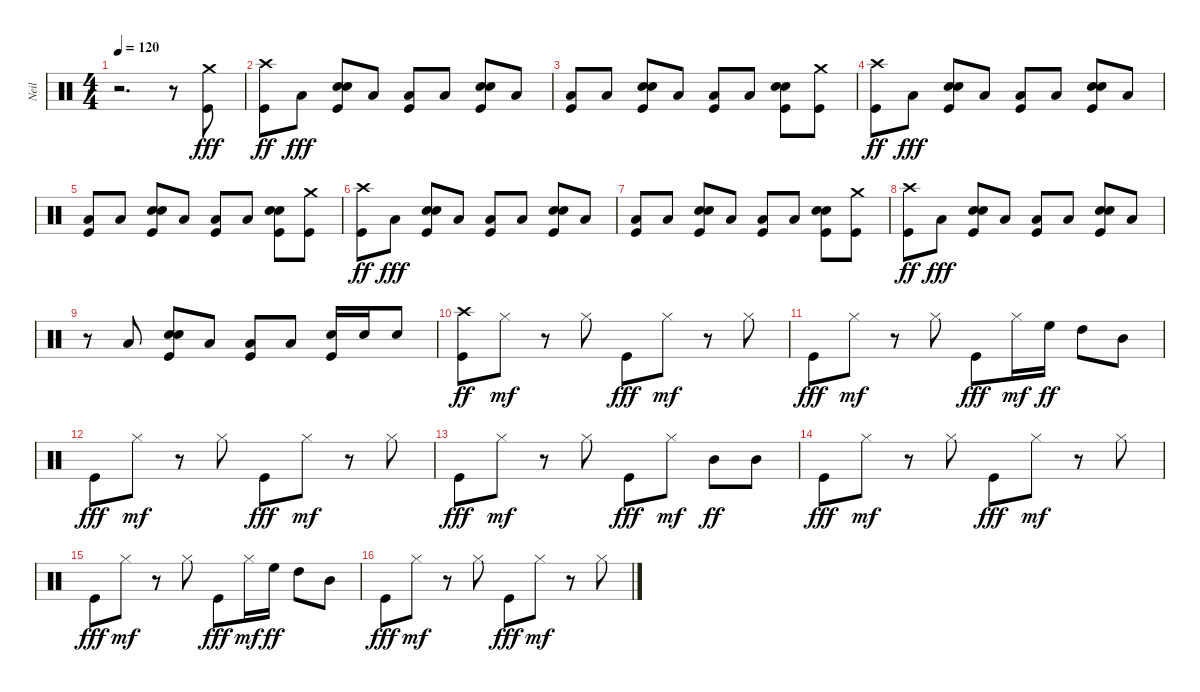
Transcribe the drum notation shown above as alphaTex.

\track ("Neil" "Neil") {instrument percussion}
\staff {score}
\articulation defaults
\ts (4 4)
\tempo 120
\clef neutral
\ks c
r.2{d dy fff} r.8 ("Kick (hit)" "Crash medium (hit)").8 |
("Kick (hit)" "Crash high (hit)").8{dy ff} "Low Floor Tom (hit)".8{dy fff} ("Snare (hit) 2" "Kick (hit)" "Snare (hit) 2").8 "Low Floor Tom (hit)".8 ("Kick (hit)" "Low Floor Tom (hit)").8 "Low Floor Tom (hit)".8 ("Snare (hit) 2" "Kick (hit)" "Snare (hit) 2").8 "Low Floor Tom (hit)".8 |
("Kick (hit)" "Low Floor Tom (hit)").8 "Low Floor Tom (hit)".8 ("Snare (hit) 2" "Kick (hit)" "Snare (hit) 2").8 "Low Floor Tom (hit)".8 ("Kick (hit)" "Low Floor Tom (hit)").8 "Low Floor Tom (hit)".8 ("Snare (hit) 2" "Kick (hit)" "Snare (hit) 2").8 ("Kick (hit)" "Crash medium (hit)").8 |
("Kick (hit)" "Crash high (hit)").8{dy ff} "Low Floor Tom (hit)".8{dy fff} ("Snare (hit) 2" "Kick (hit)" "Snare (hit) 2").8 "Low Floor Tom (hit)".8 ("Kick (hit)" "Low Floor Tom (hit)").8 "Low Floor Tom (hit)".8 ("Snare (hit) 2" "Kick (hit)" "Snare (hit) 2").8 "Low Floor Tom (hit)".8 |
("Kick (hit)" "Low Floor Tom (hit)").8 "Low Floor Tom (hit)".8 ("Snare (hit) 2" "Kick (hit)" "Snare (hit) 2").8 "Low Floor Tom (hit)".8 ("Kick (hit)" "Low Floor Tom (hit)").8 "Low Floor Tom (hit)".8 ("Snare (hit) 2" "Kick (hit)" "Snare (hit) 2").8 ("Kick (hit)" "Crash medium (hit)").8 |
("Kick (hit)" "Crash high (hit)").8{dy ff} "Low Floor Tom (hit)".8{dy fff} ("Snare (hit) 2" "Kick (hit)" "Snare (hit) 2").8 "Low Floor Tom (hit)".8 ("Kick (hit)" "Low Floor Tom (hit)").8 "Low Floor Tom (hit)".8 ("Snare (hit) 2" "Kick (hit)" "Snare (hit) 2").8 "Low Floor Tom (hit)".8 |
("Kick (hit)" "Low Floor Tom (hit)").8 "Low Floor Tom (hit)".8 ("Snare (hit) 2" "Kick (hit)" "Snare (hit) 2").8 "Low Floor Tom (hit)".8 ("Kick (hit)" "Low Floor Tom (hit)").8 "Low Floor Tom (hit)".8 ("Snare (hit) 2" "Kick (hit)" "Snare (hit) 2").8 ("Kick (hit)" "Crash medium (hit)").8 |
("Kick (hit)" "Crash high (hit)").8{dy ff} "Low Floor Tom (hit)".8{dy fff} ("Snare (hit) 2" "Kick (hit)" "Snare (hit) 2").8 "Low Floor Tom (hit)".8 ("Kick (hit)" "Low Floor Tom (hit)").8 "Low Floor Tom (hit)".8 ("Snare (hit) 2" "Kick (hit)" "Snare (hit) 2").8 "Low Floor Tom (hit)".8 |
r.8 "Low Floor Tom (hit)".8 ("Snare (hit) 2" "Kick (hit)" "Snare (hit) 2").8 "Low Floor Tom (hit)".8 ("Kick (hit)" "Low Floor Tom (hit)").8 "Low Floor Tom (hit)".8 ("Kick (hit)" "Snare (hit) 2").16 "Snare (hit) 2".16 "Snare (hit) 2".8 |
("Kick (hit)" "Crash high (hit)").8{dy ff} "Hi-Hat (closed)".8{dy mf} r.8 "Hi-Hat (closed)".8 "Kick (hit)".8{dy fff} "Hi-Hat (closed)".8{dy mf} r.8 "Hi-Hat (closed)".8 |
"Kick (hit)".8{dy fff} "Hi-Hat (closed)".8{dy mf} r.8 "Hi-Hat (closed)".8 "Kick (hit)".8{dy fff} "Hi-Hat (closed)".16{dy mf} "High Floor Tom (hit)".16{dy ff} "High Tom (hit)".8 "Mid Tom (hit)".8 |
"Kick (hit)".8{dy fff} "Hi-Hat (closed)".8{dy mf} r.8 "Hi-Hat (closed)".8 "Kick (hit)".8{dy fff} "Hi-Hat (closed)".8{dy mf} r.8 "Hi-Hat (closed)".8 |
"Kick (hit)".8{dy fff} "Hi-Hat (closed)".8{dy mf} r.8 "Hi-Hat (closed)".8 "Kick (hit)".8{dy fff} "Hi-Hat (closed)".8{dy mf} "Mid Tom (hit)".8{dy ff} "Mid Tom (hit)".8 |
"Kick (hit)".8{dy fff} "Hi-Hat (closed)".8{dy mf} r.8 "Hi-Hat (closed)".8 "Kick (hit)".8{dy fff} "Hi-Hat (closed)".8{dy mf} r.8 "Hi-Hat (closed)".8 |
"Kick (hit)".8{dy fff} "Hi-Hat (closed)".8{dy mf} r.8 "Hi-Hat (closed)".8 "Kick (hit)".8{dy fff} "Hi-Hat (closed)".16{dy mf} "High Floor Tom (hit)".16{dy ff} "High Tom (hit)".8 "Mid Tom (hit)".8 |
"Kick (hit)".8{dy fff} "Hi-Hat (closed)".8{dy mf} r.8 "Hi-Hat (closed)".8 "Kick (hit)".8{dy fff} "Hi-Hat (closed)".8{dy mf} r.8 "Hi-Hat (closed)".8
